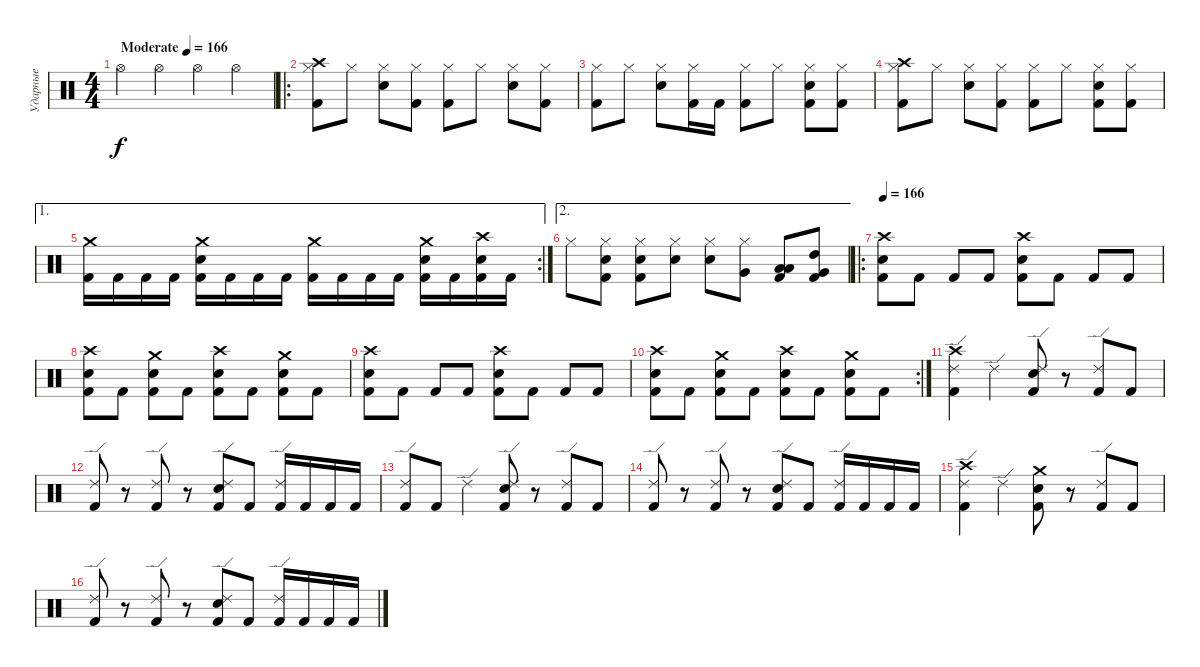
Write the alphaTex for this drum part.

\track ("Ударные" "Ударные") {instrument percussion}
\staff {score}
\articulation defaults
\ts (4 4)
\tempo (166 "Moderate")
\clef neutral
\ks c "Hi-Hat (open)".4{dy f} "Hi-Hat (open)".4 "Hi-Hat (open)".4 "Hi-Hat (open)".4
|
\ro
("Crash high (hit)" "Hi-Hat (closed)" "Kick (hit) 2").8 "Hi-Hat (closed)".8 ("Hi-Hat (closed)" "Snare (hit) 2").8 ("Hi-Hat (closed)" "Kick (hit) 2").8 ("Hi-Hat (closed)" "Kick (hit) 2").8 "Hi-Hat (closed)".8 ("Hi-Hat (closed)" "Snare (hit) 2").8 ("Hi-Hat (closed)" "Kick (hit) 2").8 |
("Hi-Hat (closed)" "Kick (hit) 2").8 "Hi-Hat (closed)".8 ("Hi-Hat (closed)" "Snare (hit) 2").8 ("Hi-Hat (closed)" "Kick (hit) 2").16 "Kick (hit) 2".16 ("Hi-Hat (closed)" "Kick (hit) 2").8 "Hi-Hat (closed)".8 ("Hi-Hat (closed)" "Snare (hit) 2" "Kick (hit) 2").8 ("Hi-Hat (closed)" "Kick (hit) 2").8 |
("Crash high (hit)" "Hi-Hat (closed)" "Kick (hit) 2").8 "Hi-Hat (closed)".8 ("Hi-Hat (closed)" "Snare (hit) 2").8 ("Hi-Hat (closed)" "Kick (hit) 2").8 ("Hi-Hat (closed)" "Kick (hit) 2").8 "Hi-Hat (closed)".8 ("Hi-Hat (closed)" "Snare (hit) 2" "Kick (hit) 2").8 ("Hi-Hat (closed)" "Kick (hit) 2").8 |
\ae 1
\rc 2
("Crash medium (hit)" "Kick (hit) 2").16 "Kick (hit) 2".16 "Kick (hit) 2".16 "Kick (hit) 2".16 ("Crash medium (hit)" "Snare (hit) 2" "Kick (hit) 2").16 "Kick (hit) 2".16 "Kick (hit) 2".16 "Kick (hit) 2".16 ("Crash medium (hit)" "Kick (hit) 2").16 "Kick (hit) 2".16 "Kick (hit) 2".16 "Kick (hit) 2".16 ("Crash medium (hit)" "Snare (hit) 2" "Kick (hit) 2").16 "Kick (hit) 2".16 ("Crash high (hit)" "Snare (hit) 2" "Kick (hit) 2").16 "Kick (hit) 2".16 |
\ae 2 "Hi-Hat (closed)".8
("Hi-Hat (closed)" "Snare (hit) 2" "Kick (hit) 2").8 ("Hi-Hat (closed)" "Snare (hit) 2" "Kick (hit) 2").8 ("Hi-Hat (closed)" "Snare (hit) 2").8 ("Hi-Hat (closed)" "Snare (hit) 2").8 ("Hi-Hat (closed)" "Very Low Tom (hit)").8 ("Low Floor Tom (hit)" "Low Tom (hit)" "Kick (hit) 2").8 ("High Tom (hit)" "Very Low Tom (hit)" "Kick (hit) 2").8 |
\ro
\tempo 166
("Crash high (hit)" "Snare (hit) 2" "Kick (hit) 2").8 "Kick (hit) 2".8 "Kick (hit) 2".8 "Kick (hit) 2".8 ("Crash high (hit)" "Snare (hit) 2" "Kick (hit) 2").8 "Kick (hit) 2".8 "Kick (hit) 2".8 "Kick (hit) 2".8 |
("Crash high (hit)" "Snare (hit) 2" "Kick (hit) 2").8 "Kick (hit) 2".8 ("Crash medium (hit)" "Snare (hit) 2" "Kick (hit) 2").8 "Kick (hit) 2".8 ("Crash high (hit)" "Snare (hit) 2" "Kick (hit) 2").8 "Kick (hit) 2".8 ("Crash medium (hit)" "Snare (hit) 2" "Kick (hit) 2").8 "Kick (hit) 2".8 |
("Crash high (hit)" "Snare (hit) 2" "Kick (hit) 2").8 "Kick (hit) 2".8 "Kick (hit) 2".8 "Kick (hit) 2".8 ("Crash high (hit)" "Snare (hit) 2" "Kick (hit) 2").8 "Kick (hit) 2".8 "Kick (hit) 2".8 "Kick (hit) 2".8 |
\rc 2
("Crash high (hit)" "Snare (hit) 2" "Kick (hit) 2").8 "Kick (hit) 2".8 ("Crash medium (hit)" "Snare (hit) 2" "Kick (hit) 2").8 "Kick (hit) 2".8 ("Crash high (hit)" "Snare (hit) 2" "Kick (hit) 2").8 "Kick (hit) 2".8 ("Crash medium (hit)" "Snare (hit) 2" "Kick (hit) 2").8 "Kick (hit) 2".8 |
("Crash high (hit)" "Ride (edge) 2" "Kick (hit) 2").4 "Ride (edge) 2".4 ("Snare (hit) 2" "Ride (edge) 2" "Kick (hit) 2").8 r.8 ("Ride (edge) 2" "Kick (hit) 2").8 "Kick (hit) 2".8 |
("Ride (edge) 2" "Kick (hit) 2").8 r.8 ("Ride (edge) 2" "Kick (hit) 2").8 r.8 ("Ride (edge) 2" "Snare (hit) 2" "Kick (hit) 2").8 "Kick (hit) 2".8 ("Ride (edge) 2" "Kick (hit) 2").16 "Kick (hit) 2".16 "Kick (hit) 2".16 "Kick (hit) 2".16 |
("Ride (edge) 2" "Kick (hit) 2").8 "Kick (hit) 2".8 "Ride (edge) 2".4 ("Snare (hit) 2" "Ride (edge) 2" "Kick (hit) 2").8 r.8 ("Ride (edge) 2" "Kick (hit) 2").8 "Kick (hit) 2".8 |
("Ride (edge) 2" "Kick (hit) 2").8 r.8 ("Ride (edge) 2" "Kick (hit) 2").8 r.8 ("Ride (edge) 2" "Snare (hit) 2" "Kick (hit) 2").8 "Kick (hit) 2".8 ("Ride (edge) 2" "Kick (hit) 2").16 "Kick (hit) 2".16 "Kick (hit) 2".16 "Kick (hit) 2".16 |
("Crash high (hit)" "Ride (edge) 2" "Kick (hit) 2").4 "Ride (edge) 2".4 ("Snare (hit) 2" "Crash medium (hit)" "Kick (hit) 2").8 r.8 ("Ride (edge) 2" "Kick (hit) 2").8 "Kick (hit) 2".8 |
("Ride (edge) 2" "Kick (hit) 2").8 r.8 ("Ride (edge) 2" "Kick (hit) 2").8 r.8 ("Ride (edge) 2" "Snare (hit) 2" "Kick (hit) 2").8 "Kick (hit) 2".8 ("Ride (edge) 2" "Kick (hit) 2").16 "Kick (hit) 2".16 "Kick (hit) 2".16 "Kick (hit) 2".16
